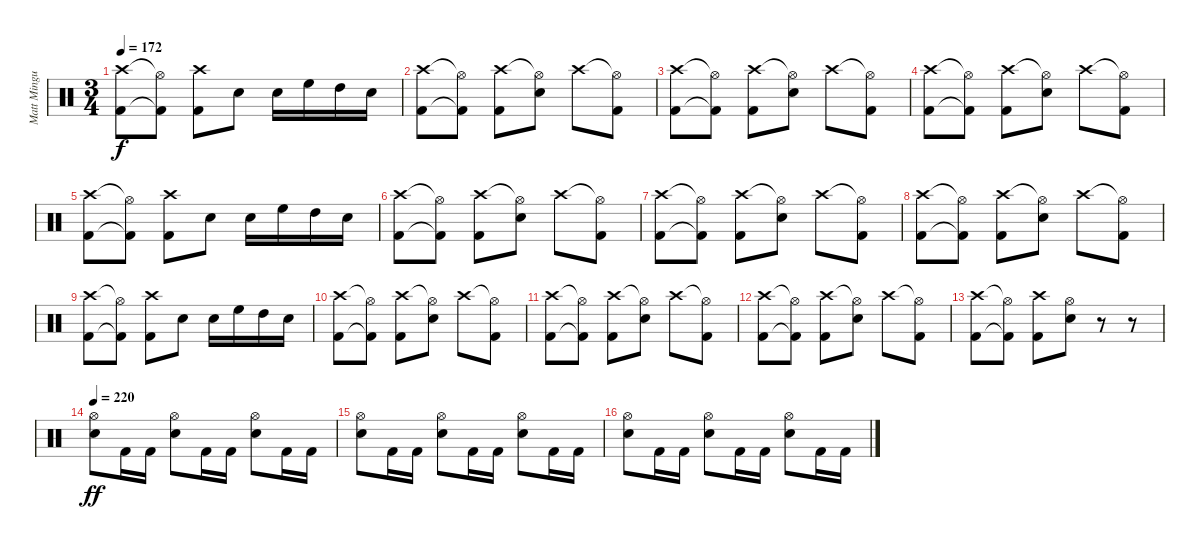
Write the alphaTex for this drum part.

\track ("Matt Mingus" "Matt Mingu") {instrument percussion}
\staff {score}
\articulation defaults
\ts (3 4)
\tempo 172
\clef neutral
\ks c
("Crash high (hit)" "Kick (hit) 2").8{dy f} ("Hi-Hat (open)"{t} "Kick (hit) 2"{t}).8 ("Crash high (hit)" "Kick (hit) 2").8 "Electric Snare (hit)".8 "Electric Snare (hit)".16 "High Floor Tom (hit)".16 "High Tom (hit)".16 "Electric Snare (hit)".16 |
("Crash high (hit)" "Kick (hit) 2").8 ("Hi-Hat (open)"{t} "Kick (hit) 2"{t}).8 ("Crash high (hit)" "Kick (hit) 2").8 ("Hi-Hat (open)"{t} "Electric Snare (hit)").8 "Crash high (hit)".8 ("Hi-Hat (open)"{t} "Kick (hit) 2").8 |
("Crash high (hit)" "Kick (hit) 2").8 ("Hi-Hat (open)"{t} "Kick (hit) 2"{t}).8 ("Crash high (hit)" "Kick (hit) 2").8 ("Hi-Hat (open)"{t} "Electric Snare (hit)").8 "Crash high (hit)".8 ("Hi-Hat (open)"{t} "Kick (hit) 2").8 |
("Crash high (hit)" "Kick (hit) 2").8 ("Hi-Hat (open)"{t} "Kick (hit) 2"{t}).8 ("Crash high (hit)" "Kick (hit) 2").8 ("Hi-Hat (open)"{t} "Electric Snare (hit)").8 "Crash high (hit)".8 ("Hi-Hat (open)"{t} "Kick (hit) 2").8 |
("Crash high (hit)" "Kick (hit) 2").8 ("Hi-Hat (open)"{t} "Kick (hit) 2"{t}).8 ("Crash high (hit)" "Kick (hit) 2").8 "Electric Snare (hit)".8 "Electric Snare (hit)".16 "High Floor Tom (hit)".16 "High Tom (hit)".16 "Electric Snare (hit)".16 |
("Crash high (hit)" "Kick (hit) 2").8 ("Hi-Hat (open)"{t} "Kick (hit) 2"{t}).8 ("Crash high (hit)" "Kick (hit) 2").8 ("Hi-Hat (open)"{t} "Electric Snare (hit)").8 "Crash high (hit)".8 ("Hi-Hat (open)"{t} "Kick (hit) 2").8 |
("Crash high (hit)" "Kick (hit) 2").8 ("Hi-Hat (open)"{t} "Kick (hit) 2"{t}).8 ("Crash high (hit)" "Kick (hit) 2").8 ("Hi-Hat (open)"{t} "Electric Snare (hit)").8 "Crash high (hit)".8 ("Hi-Hat (open)"{t} "Kick (hit) 2").8 |
("Crash high (hit)" "Kick (hit) 2").8 ("Hi-Hat (open)"{t} "Kick (hit) 2"{t}).8 ("Crash high (hit)" "Kick (hit) 2").8 ("Hi-Hat (open)"{t} "Electric Snare (hit)").8 "Crash high (hit)".8 ("Hi-Hat (open)"{t} "Kick (hit) 2").8 |
("Crash high (hit)" "Kick (hit) 2").8 ("Hi-Hat (open)"{t} "Kick (hit) 2"{t}).8 ("Crash high (hit)" "Kick (hit) 2").8 "Electric Snare (hit)".8 "Electric Snare (hit)".16 "High Floor Tom (hit)".16 "High Tom (hit)".16 "Electric Snare (hit)".16 |
("Crash high (hit)" "Kick (hit) 2").8 ("Hi-Hat (open)"{t} "Kick (hit) 2"{t}).8 ("Crash high (hit)" "Kick (hit) 2").8 ("Hi-Hat (open)"{t} "Electric Snare (hit)").8 "Crash high (hit)".8 ("Hi-Hat (open)"{t} "Kick (hit) 2").8 |
("Crash high (hit)" "Kick (hit) 2").8 ("Hi-Hat (open)"{t} "Kick (hit) 2"{t}).8 ("Crash high (hit)" "Kick (hit) 2").8 ("Hi-Hat (open)"{t} "Electric Snare (hit)").8 "Crash high (hit)".8 ("Hi-Hat (open)"{t} "Kick (hit) 2").8 |
("Crash high (hit)" "Kick (hit) 2").8 ("Hi-Hat (open)"{t} "Kick (hit) 2"{t}).8 ("Crash high (hit)" "Kick (hit) 2").8 ("Hi-Hat (open)"{t} "Electric Snare (hit)").8 "Crash high (hit)".8 ("Hi-Hat (open)"{t} "Kick (hit) 2").8 |
("Crash high (hit)" "Kick (hit) 2").8 ("Hi-Hat (open)"{t} "Kick (hit) 2"{t}).8 ("Crash high (hit)" "Kick (hit) 2").8 ("Hi-Hat (open)" "Electric Snare (hit)").8 r.8 r.8 |
\tempo 220
("Hi-Hat (open)" "Electric Snare (hit)").8{dy ff} "Kick (hit) 2".16 "Kick (hit) 2".16 ("Hi-Hat (open)" "Electric Snare (hit)").8 "Kick (hit) 2".16 "Kick (hit) 2".16 ("Hi-Hat (open)" "Electric Snare (hit)").8 "Kick (hit) 2".16 "Kick (hit) 2".16 |
("Hi-Hat (open)" "Electric Snare (hit)").8 "Kick (hit) 2".16 "Kick (hit) 2".16 ("Hi-Hat (open)" "Electric Snare (hit)").8 "Kick (hit) 2".16 "Kick (hit) 2".16 ("Hi-Hat (open)" "Electric Snare (hit)").8 "Kick (hit) 2".16 "Kick (hit) 2".16 |
("Hi-Hat (open)" "Electric Snare (hit)").8 "Kick (hit) 2".16 "Kick (hit) 2".16 ("Hi-Hat (open)" "Electric Snare (hit)").8 "Kick (hit) 2".16 "Kick (hit) 2".16 ("Hi-Hat (open)" "Electric Snare (hit)").8 "Kick (hit) 2".16 "Kick (hit) 2".16
